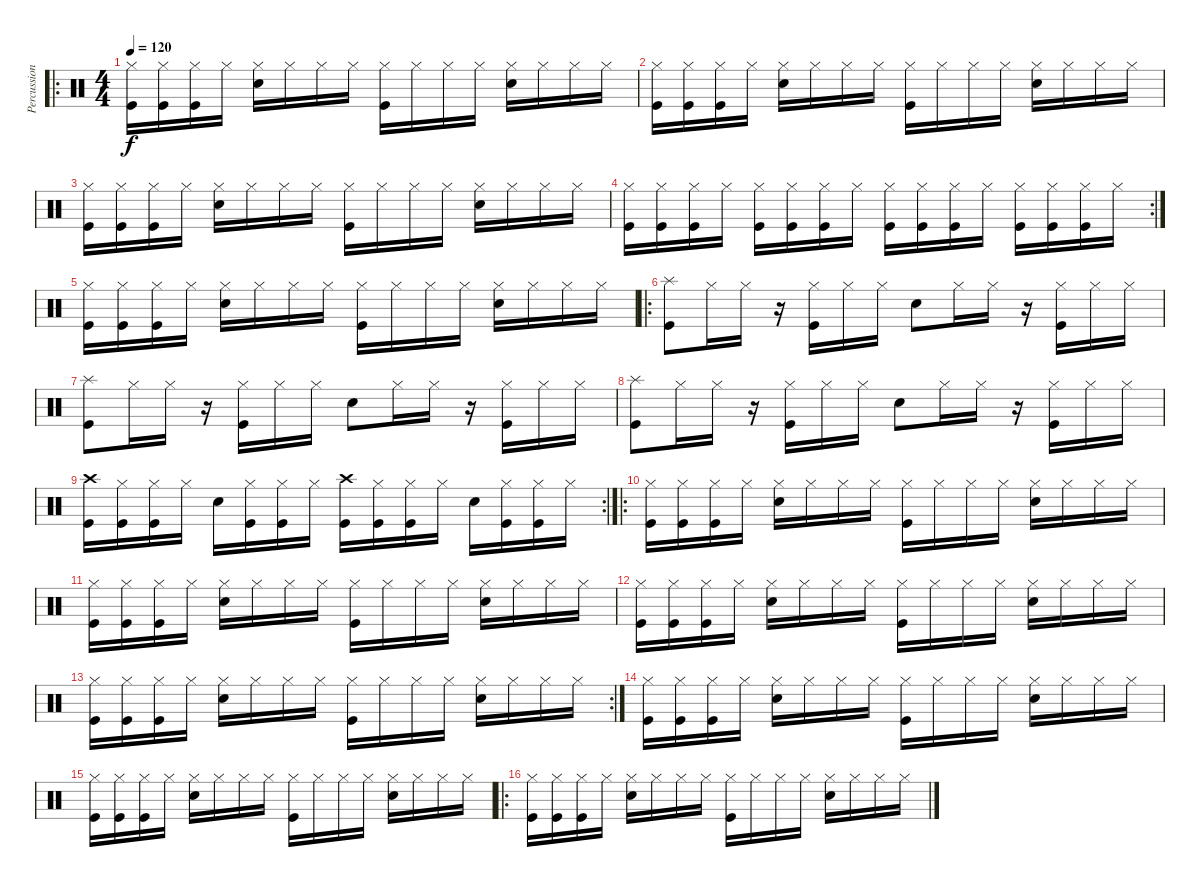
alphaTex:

\track ("Percussion" "Percussion") {instrument percussion}
\staff {score}
\articulation defaults
\ro
\ts (4 4)
\tempo 120
\clef neutral
\ks c
("Kick (hit)" "Hi-Hat (closed)").16{dy f} ("Kick (hit)" "Hi-Hat (closed)").16 ("Kick (hit)" "Hi-Hat (closed)").16 "Hi-Hat (closed)".16 ("Snare (hit) 2" "Hi-Hat (closed)").16 "Hi-Hat (closed)".16 "Hi-Hat (closed)".16 "Hi-Hat (closed)".16 ("Kick (hit)" "Hi-Hat (closed)").16 "Hi-Hat (closed)".16 "Hi-Hat (closed)".16 "Hi-Hat (closed)".16 ("Snare (hit) 2" "Hi-Hat (closed)").16 "Hi-Hat (closed)".16 "Hi-Hat (closed)".16 "Hi-Hat (closed)".16 |
("Kick (hit)" "Hi-Hat (closed)").16 ("Kick (hit)" "Hi-Hat (closed)").16 ("Kick (hit)" "Hi-Hat (closed)").16 "Hi-Hat (closed)".16 ("Snare (hit) 2" "Hi-Hat (closed)").16 "Hi-Hat (closed)".16 "Hi-Hat (closed)".16 "Hi-Hat (closed)".16 ("Kick (hit)" "Hi-Hat (closed)").16 "Hi-Hat (closed)".16 "Hi-Hat (closed)".16 "Hi-Hat (closed)".16 ("Snare (hit) 2" "Hi-Hat (closed)").16 "Hi-Hat (closed)".16 "Hi-Hat (closed)".16 "Hi-Hat (closed)".16 |
("Kick (hit)" "Hi-Hat (closed)").16 ("Kick (hit)" "Hi-Hat (closed)").16 ("Kick (hit)" "Hi-Hat (closed)").16 "Hi-Hat (closed)".16 ("Snare (hit) 2" "Hi-Hat (closed)").16 "Hi-Hat (closed)".16 "Hi-Hat (closed)".16 "Hi-Hat (closed)".16 ("Kick (hit)" "Hi-Hat (closed)").16 "Hi-Hat (closed)".16 "Hi-Hat (closed)".16 "Hi-Hat (closed)".16 ("Snare (hit) 2" "Hi-Hat (closed)").16 "Hi-Hat (closed)".16 "Hi-Hat (closed)".16 "Hi-Hat (closed)".16 |
\rc 2
("Kick (hit)" "Hi-Hat (closed)").16 ("Kick (hit)" "Hi-Hat (closed)").16 ("Kick (hit)" "Hi-Hat (closed)").16 "Hi-Hat (closed)".16 ("Kick (hit)" "Hi-Hat (closed)").16 ("Kick (hit)" "Hi-Hat (closed)").16 ("Kick (hit)" "Hi-Hat (closed)").16 "Hi-Hat (closed)".16 ("Kick (hit)" "Hi-Hat (closed)").16 ("Kick (hit)" "Hi-Hat (closed)").16 ("Kick (hit)" "Hi-Hat (closed)").16 "Hi-Hat (closed)".16 ("Kick (hit)" "Hi-Hat (closed)").16 ("Kick (hit)" "Hi-Hat (closed)").16 ("Kick (hit)" "Hi-Hat (closed)").16 "Hi-Hat (closed)".16 |
("Kick (hit)" "Hi-Hat (closed)").16 ("Kick (hit)" "Hi-Hat (closed)").16 ("Kick (hit)" "Hi-Hat (closed)").16 "Hi-Hat (closed)".16 ("Snare (hit) 2" "Hi-Hat (closed)").16 "Hi-Hat (closed)".16 "Hi-Hat (closed)".16 "Hi-Hat (closed)".16 ("Kick (hit)" "Hi-Hat (closed)").16 "Hi-Hat (closed)".16 "Hi-Hat (closed)".16 "Hi-Hat (closed)".16 ("Snare (hit) 2" "Hi-Hat (closed)").16 "Hi-Hat (closed)".16 "Hi-Hat (closed)".16 "Hi-Hat (closed)".16 |
\ro
("Kick (hit)" "Splash (hit)").8 "Hi-Hat (closed)".16 "Hi-Hat (closed)".16 r.16 ("Hi-Hat (closed)" "Kick (hit)").16 "Hi-Hat (closed)".16 "Hi-Hat (closed)".16 "Snare (hit) 2".8 "Hi-Hat (closed)".16 "Hi-Hat (closed)".16 r.16 ("Hi-Hat (closed)" "Kick (hit)").16 "Hi-Hat (closed)".16 "Hi-Hat (closed)".16 |
("Kick (hit)" "Splash (hit)").8 "Hi-Hat (closed)".16 "Hi-Hat (closed)".16 r.16 ("Hi-Hat (closed)" "Kick (hit)").16 "Hi-Hat (closed)".16 "Hi-Hat (closed)".16 "Snare (hit) 2".8 "Hi-Hat (closed)".16 "Hi-Hat (closed)".16 r.16 ("Hi-Hat (closed)" "Kick (hit)").16 "Hi-Hat (closed)".16 "Hi-Hat (closed)".16 |
("Kick (hit)" "Splash (hit)").8 "Hi-Hat (closed)".16 "Hi-Hat (closed)".16 r.16 ("Hi-Hat (closed)" "Kick (hit)").16 "Hi-Hat (closed)".16 "Hi-Hat (closed)".16 "Snare (hit) 2".8 "Hi-Hat (closed)".16 "Hi-Hat (closed)".16 r.16 ("Hi-Hat (closed)" "Kick (hit)").16 "Hi-Hat (closed)".16 "Hi-Hat (closed)".16 |
\rc 2
("Crash high (hit)" "Kick (hit)").16 ("Kick (hit)" "Hi-Hat (closed)").16 ("Kick (hit)" "Hi-Hat (closed)").16 "Hi-Hat (closed)".16 "Snare (hit) 2".16 ("Kick (hit)" "Hi-Hat (closed)").16 ("Kick (hit)" "Hi-Hat (closed)").16 "Hi-Hat (closed)".16 ("Crash high (hit)" "Kick (hit)").16 ("Kick (hit)" "Hi-Hat (closed)").16 ("Kick (hit)" "Hi-Hat (closed)").16 "Hi-Hat (closed)".16 "Snare (hit) 2".16 ("Kick (hit)" "Hi-Hat (closed)").16 ("Kick (hit)" "Hi-Hat (closed)").16 "Hi-Hat (closed)".16 |
\ro
("Kick (hit)" "Hi-Hat (closed)").16 ("Kick (hit)" "Hi-Hat (closed)").16 ("Kick (hit)" "Hi-Hat (closed)").16 "Hi-Hat (closed)".16 ("Snare (hit) 2" "Hi-Hat (closed)").16 "Hi-Hat (closed)".16 "Hi-Hat (closed)".16 "Hi-Hat (closed)".16 ("Kick (hit)" "Hi-Hat (closed)").16 "Hi-Hat (closed)".16 "Hi-Hat (closed)".16 "Hi-Hat (closed)".16 ("Snare (hit) 2" "Hi-Hat (closed)").16 "Hi-Hat (closed)".16 "Hi-Hat (closed)".16 "Hi-Hat (closed)".16 |
("Kick (hit)" "Hi-Hat (closed)").16 ("Kick (hit)" "Hi-Hat (closed)").16 ("Kick (hit)" "Hi-Hat (closed)").16 "Hi-Hat (closed)".16 ("Snare (hit) 2" "Hi-Hat (closed)").16 "Hi-Hat (closed)".16 "Hi-Hat (closed)".16 "Hi-Hat (closed)".16 ("Kick (hit)" "Hi-Hat (closed)").16 "Hi-Hat (closed)".16 "Hi-Hat (closed)".16 "Hi-Hat (closed)".16 ("Snare (hit) 2" "Hi-Hat (closed)").16 "Hi-Hat (closed)".16 "Hi-Hat (closed)".16 "Hi-Hat (closed)".16 |
("Kick (hit)" "Hi-Hat (closed)").16 ("Kick (hit)" "Hi-Hat (closed)").16 ("Kick (hit)" "Hi-Hat (closed)").16 "Hi-Hat (closed)".16 ("Snare (hit) 2" "Hi-Hat (closed)").16 "Hi-Hat (closed)".16 "Hi-Hat (closed)".16 "Hi-Hat (closed)".16 ("Kick (hit)" "Hi-Hat (closed)").16 "Hi-Hat (closed)".16 "Hi-Hat (closed)".16 "Hi-Hat (closed)".16 ("Snare (hit) 2" "Hi-Hat (closed)").16 "Hi-Hat (closed)".16 "Hi-Hat (closed)".16 "Hi-Hat (closed)".16 |
\rc 2
("Kick (hit)" "Hi-Hat (closed)").16 ("Kick (hit)" "Hi-Hat (closed)").16 ("Kick (hit)" "Hi-Hat (closed)").16 "Hi-Hat (closed)".16 ("Snare (hit) 2" "Hi-Hat (closed)").16 "Hi-Hat (closed)".16 "Hi-Hat (closed)".16 "Hi-Hat (closed)".16 ("Kick (hit)" "Hi-Hat (closed)").16 "Hi-Hat (closed)".16 "Hi-Hat (closed)".16 "Hi-Hat (closed)".16 ("Snare (hit) 2" "Hi-Hat (closed)").16 "Hi-Hat (closed)".16 "Hi-Hat (closed)".16 "Hi-Hat (closed)".16 |
("Kick (hit)" "Hi-Hat (closed)").16 ("Kick (hit)" "Hi-Hat (closed)").16 ("Kick (hit)" "Hi-Hat (closed)").16 "Hi-Hat (closed)".16 ("Snare (hit) 2" "Hi-Hat (closed)").16 "Hi-Hat (closed)".16 "Hi-Hat (closed)".16 "Hi-Hat (closed)".16 ("Kick (hit)" "Hi-Hat (closed)").16 "Hi-Hat (closed)".16 "Hi-Hat (closed)".16 "Hi-Hat (closed)".16 ("Snare (hit) 2" "Hi-Hat (closed)").16 "Hi-Hat (closed)".16 "Hi-Hat (closed)".16 "Hi-Hat (closed)".16 |
("Kick (hit)" "Hi-Hat (closed)").16 ("Kick (hit)" "Hi-Hat (closed)").16 ("Kick (hit)" "Hi-Hat (closed)").16 "Hi-Hat (closed)".16 ("Snare (hit) 2" "Hi-Hat (closed)").16 "Hi-Hat (closed)".16 "Hi-Hat (closed)".16 "Hi-Hat (closed)".16 ("Kick (hit)" "Hi-Hat (closed)").16 "Hi-Hat (closed)".16 "Hi-Hat (closed)".16 "Hi-Hat (closed)".16 ("Snare (hit) 2" "Hi-Hat (closed)").16 "Hi-Hat (closed)".16 "Hi-Hat (closed)".16 "Hi-Hat (closed)".16 |
\ro
("Kick (hit)" "Hi-Hat (closed)").16 ("Kick (hit)" "Hi-Hat (closed)").16 ("Kick (hit)" "Hi-Hat (closed)").16 "Hi-Hat (closed)".16 ("Snare (hit) 2" "Hi-Hat (closed)").16 "Hi-Hat (closed)".16 "Hi-Hat (closed)".16 "Hi-Hat (closed)".16 ("Kick (hit)" "Hi-Hat (closed)").16 "Hi-Hat (closed)".16 "Hi-Hat (closed)".16 "Hi-Hat (closed)".16 ("Snare (hit) 2" "Hi-Hat (closed)").16 "Hi-Hat (closed)".16 "Hi-Hat (closed)".16 "Hi-Hat (closed)".16
